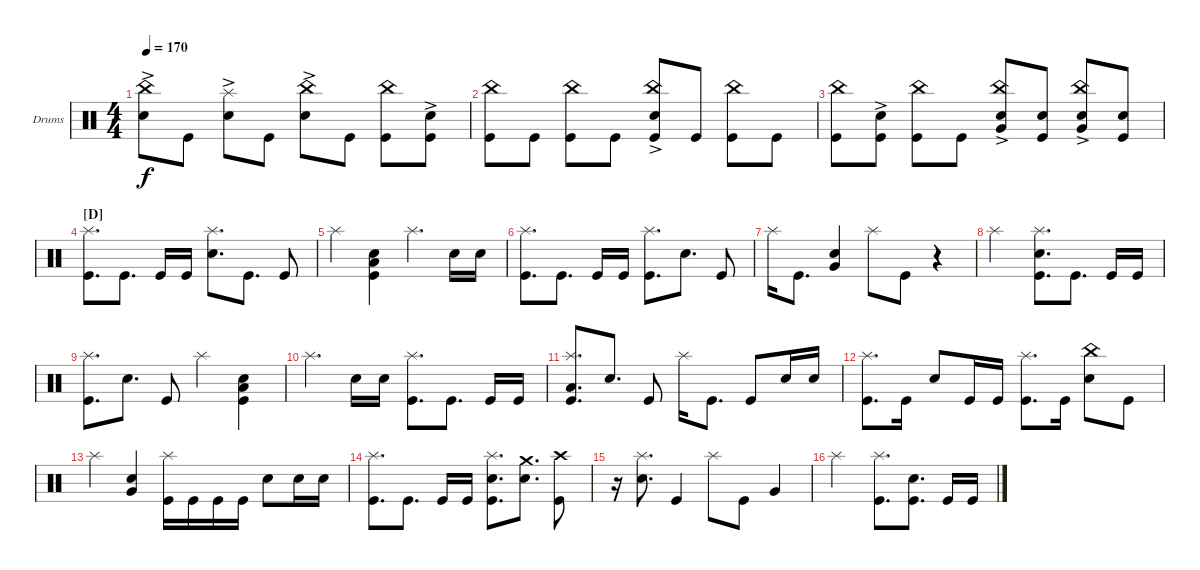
\defaultSystemsLayout 4
\bracketExtendMode groupsimilarinstruments
\firstSystemTrackNameOrientation horizontal
\otherSystemsTrackNameOrientation horizontal
\track ("Drumkit" "Drums") {instrument percussion}
\staff {score}
\articulation defaults
\ts (4 4)
\tempo 170
\clef neutral
\ks c
("Snare (hit) 2"{ac} "China (hit)").8{dy f} "Kick (hit)".8 ("Snare (hit) 2"{ac} "Splash (hit)").8 "Kick (hit)".8 ("Snare (hit) 2"{ac} "China (hit)").8 "Kick (hit)".8 ("Kick (hit)" "China (hit)").8 ("Snare (hit) 2"{ac} "Kick (hit)").8 |
("Kick (hit)" "China (hit)").8 "Kick (hit)".8 ("Kick (hit)" "China (hit)").8 "Kick (hit)".8 ("Snare (hit) 2"{ac} "Kick (hit)" "China (hit)").8 "Kick (hit)".8 ("Kick (hit)" "China (hit)").8 "Kick (hit)".8 |
("Kick (hit)" "China (hit)").8 ("Snare (hit) 2"{ac} "Kick (hit)").8 ("Kick (hit)" "China (hit)").8 "Kick (hit)".8 ("Snare (hit) 2"{ac} "China (hit)" "Very Low Tom (hit)").8 ("Kick (hit)" "Snare (hit) 2").8 ("Snare (hit) 2"{ac} "China (hit)" "Very Low Tom (hit)").8 ("Kick (hit)" "Snare (hit) 2").8 |
\section ("D" "")
("Splash (hit)" "Kick (hit)").8{d} "Kick (hit)".8{d} "Kick (hit)".16 "Kick (hit)".16 ("Splash (hit)" "Snare (hit) 2").8{d} "Kick (hit)".8{d} "Kick (hit)".8 |
"Splash (hit)".4 ("Kick (hit)" "Snare (hit) 2" "Low Tom (hit)").4 "Splash (hit)".4{d} "Snare (hit) 2".16 "Snare (hit) 2".16 |
("Splash (hit)" "Kick (hit)").8{d} "Kick (hit)".8{d} "Kick (hit)".16 "Kick (hit)".16 ("Splash (hit)" "Kick (hit)").8{d} "Snare (hit) 2".8{d} "Kick (hit)".8 |
"Splash (hit)".16 "Kick (hit)".8{d} ("Snare (hit) 2" "Very Low Tom (hit)").4 "Splash (hit)".8 "Kick (hit)".8 r.4 |
"Splash (hit)".2 ("Splash (hit)" "Kick (hit)" "Snare (hit) 2").8{d} "Kick (hit)".8{d} "Kick (hit)".16 "Kick (hit)".16 |
("Splash (hit)" "Kick (hit)").8{d} "Snare (hit) 2".8{d} "Kick (hit)".8 "Splash (hit)".4 ("Snare (hit) 2" "Low Tom (hit)" "Kick (hit)").4 |
"Splash (hit)".4{d} "Snare (hit) 2".16 "Snare (hit) 2".16 ("Splash (hit)" "Kick (hit)").8{d} "Kick (hit)".8{d} "Kick (hit)".16 "Kick (hit)".16 |
("Splash (hit)" "Kick (hit)" "Low Tom (hit)").8{d} "Snare (hit) 2".8{d} "Kick (hit)".8 "Splash (hit)".16 "Kick (hit)".8{d} "Kick (hit)".8 "Snare (hit) 2".16 "Snare (hit) 2".16 |
("Splash (hit)" "Kick (hit)").8{d} "Kick (hit)".16 "Snare (hit) 2".8 "Kick (hit)".16 "Kick (hit)".16 ("Splash (hit)" "Kick (hit)").8{d} "Kick (hit)".16 ("Snare (hit) 2" "China (hit)").8 "Kick (hit)".8 |
"Splash (hit)".4 ("Snare (hit) 2" "Very Low Tom (hit)").4 ("Kick (hit)" "Splash (hit)").16 "Kick (hit)".16 "Kick (hit)".16 "Kick (hit)".16 "Snare (hit) 2".8 "Snare (hit) 2".16 "Snare (hit) 2".16 |
("Kick (hit)" "Splash (hit)").8{d} "Kick (hit)".8{d} "Kick (hit)".16 "Kick (hit)".16 ("Snare (hit) 2" "Splash (hit)" "Kick (hit)").8{d} ("Snare (hit) 2" "Crash medium (hit)").8{d} ("Kick (hit)" "Crash high (hit)").8 |
r.16 ("Snare (hit) 2" "Splash (hit)").8{d} "Kick (hit)".4 "Splash (hit)".8 "Kick (hit)".8 "Very Low Tom (hit)".4 |
"Splash (hit)".2 ("Splash (hit)" "Kick (hit)").8{d} ("Kick (hit)" "Snare (hit) 2").8{d} "Kick (hit)".16 "Kick (hit)".16
